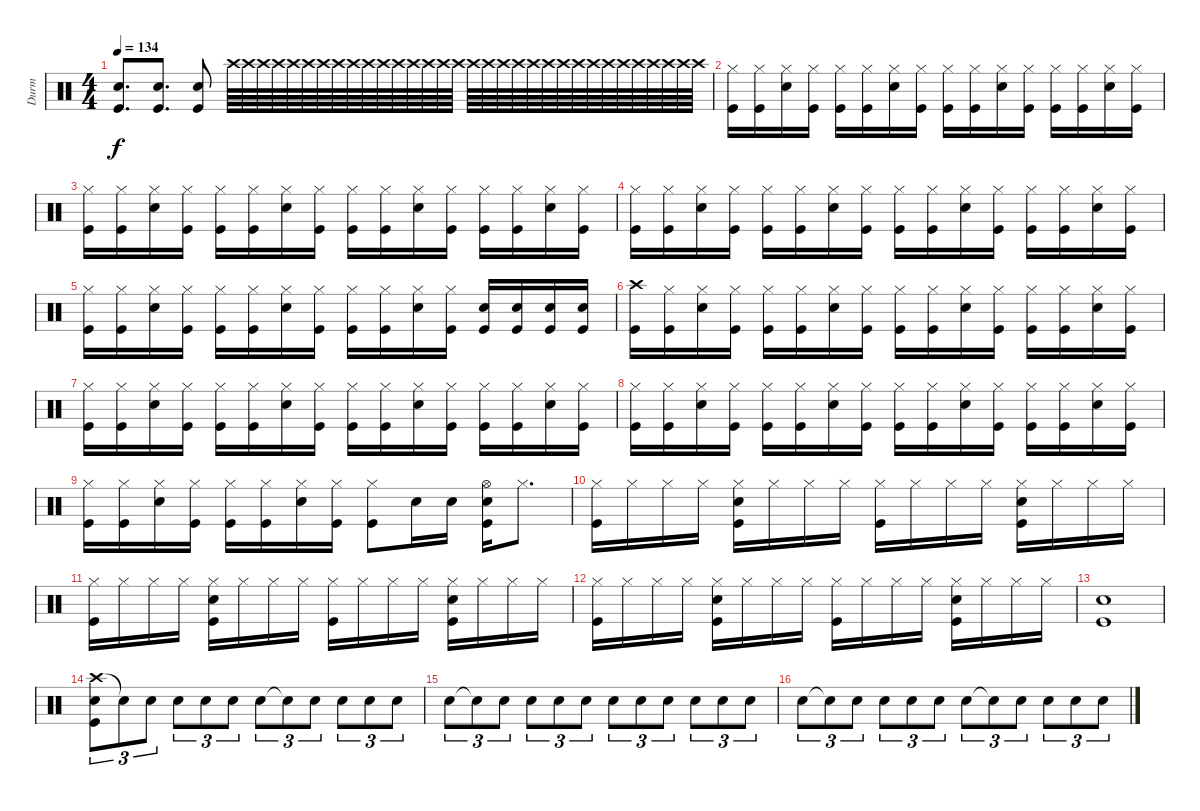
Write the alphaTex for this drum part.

\track ("Durm" "Durm") {instrument percussion}
\staff {score}
\articulation defaults
\ts (4 4)
\tempo 134
\clef neutral
\ks c
("Electric Snare (hit)" "Kick (hit)").8{d dy f} ("Electric Snare (hit)" "Kick (hit)").8{d} ("Electric Snare (hit)" "Kick (hit)").8 "Crash high (hit)".64{volume 0} "Crash high (hit)".64{volume 16} "Crash high (hit)".64 "Crash high (hit)".64 "Crash high (hit)".64 "Crash high (hit)".64 "Crash high (hit)".64 "Crash high (hit)".64 "Crash high (hit)".64 "Crash high (hit)".64 "Crash high (hit)".64 "Crash high (hit)".64 "Crash high (hit)".64 "Crash high (hit)".64 "Crash high (hit)".64 "Crash high (hit)".64 "Crash high (hit)".64 "Crash high (hit)".64 "Crash high (hit)".64 "Crash high (hit)".64 "Crash high (hit)".64 "Crash high (hit)".64 "Crash high (hit)".64 "Crash high (hit)".64 "Crash high (hit)".64 "Crash high (hit)".64 "Crash high (hit)".64 "Crash high (hit)".64 "Crash high (hit)".64 "Crash high (hit)".64 "Crash high (hit)".64 "Crash high (hit)".64{volume 16} |
("Hi-Hat (closed)" "Kick (hit)").16 ("Hi-Hat (closed)" "Kick (hit)").16 ("Hi-Hat (closed)" "Electric Snare (hit)").16 ("Hi-Hat (closed)" "Kick (hit)").16 ("Hi-Hat (closed)" "Kick (hit)").16 ("Hi-Hat (closed)" "Kick (hit)").16 ("Hi-Hat (closed)" "Electric Snare (hit)").16 ("Hi-Hat (closed)" "Kick (hit)").16 ("Hi-Hat (closed)" "Kick (hit)").16 ("Hi-Hat (closed)" "Kick (hit)").16 ("Hi-Hat (closed)" "Electric Snare (hit)").16 ("Hi-Hat (closed)" "Kick (hit)").16 ("Hi-Hat (closed)" "Kick (hit)").16 ("Hi-Hat (closed)" "Kick (hit)").16 ("Hi-Hat (closed)" "Electric Snare (hit)").16 ("Hi-Hat (closed)" "Kick (hit)").16 |
("Hi-Hat (closed)" "Kick (hit)").16 ("Hi-Hat (closed)" "Kick (hit)").16 ("Hi-Hat (closed)" "Electric Snare (hit)").16 ("Hi-Hat (closed)" "Kick (hit)").16 ("Hi-Hat (closed)" "Kick (hit)").16 ("Hi-Hat (closed)" "Kick (hit)").16 ("Hi-Hat (closed)" "Electric Snare (hit)").16 ("Hi-Hat (closed)" "Kick (hit)").16 ("Hi-Hat (closed)" "Kick (hit)").16 ("Hi-Hat (closed)" "Kick (hit)").16 ("Hi-Hat (closed)" "Electric Snare (hit)").16 ("Hi-Hat (closed)" "Kick (hit)").16 ("Hi-Hat (closed)" "Kick (hit)").16 ("Hi-Hat (closed)" "Kick (hit)").16 ("Hi-Hat (closed)" "Electric Snare (hit)").16 ("Hi-Hat (closed)" "Kick (hit)").16 |
("Hi-Hat (closed)" "Kick (hit)").16 ("Hi-Hat (closed)" "Kick (hit)").16 ("Hi-Hat (closed)" "Electric Snare (hit)").16 ("Hi-Hat (closed)" "Kick (hit)").16 ("Hi-Hat (closed)" "Kick (hit)").16 ("Hi-Hat (closed)" "Kick (hit)").16 ("Hi-Hat (closed)" "Electric Snare (hit)").16 ("Hi-Hat (closed)" "Kick (hit)").16 ("Hi-Hat (closed)" "Kick (hit)").16 ("Hi-Hat (closed)" "Kick (hit)").16 ("Hi-Hat (closed)" "Electric Snare (hit)").16 ("Hi-Hat (closed)" "Kick (hit)").16 ("Hi-Hat (closed)" "Kick (hit)").16 ("Hi-Hat (closed)" "Kick (hit)").16 ("Hi-Hat (closed)" "Electric Snare (hit)").16 ("Hi-Hat (closed)" "Kick (hit)").16 |
("Hi-Hat (closed)" "Kick (hit)").16 ("Hi-Hat (closed)" "Kick (hit)").16 ("Hi-Hat (closed)" "Electric Snare (hit)").16 ("Hi-Hat (closed)" "Kick (hit)").16 ("Hi-Hat (closed)" "Kick (hit)").16 ("Hi-Hat (closed)" "Kick (hit)").16 ("Hi-Hat (closed)" "Electric Snare (hit)").16 ("Hi-Hat (closed)" "Kick (hit)").16 ("Hi-Hat (closed)" "Kick (hit)").16 ("Hi-Hat (closed)" "Kick (hit)").16 ("Hi-Hat (closed)" "Electric Snare (hit)").16 ("Hi-Hat (closed)" "Kick (hit)").16 ("Electric Snare (hit)" "Kick (hit)").16 ("Electric Snare (hit)" "Kick (hit)").16 ("Electric Snare (hit)" "Kick (hit)").16 ("Electric Snare (hit)" "Kick (hit)").16 |
("Crash high (hit)" "Kick (hit)").16 ("Hi-Hat (closed)" "Kick (hit)").16 ("Hi-Hat (closed)" "Electric Snare (hit)").16 ("Hi-Hat (closed)" "Kick (hit)").16 ("Hi-Hat (closed)" "Kick (hit)").16 ("Hi-Hat (closed)" "Kick (hit)").16 ("Hi-Hat (closed)" "Electric Snare (hit)").16 ("Hi-Hat (closed)" "Kick (hit)").16 ("Hi-Hat (closed)" "Kick (hit)").16 ("Hi-Hat (closed)" "Kick (hit)").16 ("Hi-Hat (closed)" "Electric Snare (hit)").16 ("Hi-Hat (closed)" "Kick (hit)").16 ("Hi-Hat (closed)" "Kick (hit)").16 ("Hi-Hat (closed)" "Kick (hit)").16 ("Hi-Hat (closed)" "Electric Snare (hit)").16 ("Hi-Hat (closed)" "Kick (hit)").16 |
("Hi-Hat (closed)" "Kick (hit)").16 ("Hi-Hat (closed)" "Kick (hit)").16 ("Hi-Hat (closed)" "Electric Snare (hit)").16 ("Hi-Hat (closed)" "Kick (hit)").16 ("Hi-Hat (closed)" "Kick (hit)").16 ("Hi-Hat (closed)" "Kick (hit)").16 ("Hi-Hat (closed)" "Electric Snare (hit)").16 ("Hi-Hat (closed)" "Kick (hit)").16 ("Hi-Hat (closed)" "Kick (hit)").16 ("Hi-Hat (closed)" "Kick (hit)").16 ("Hi-Hat (closed)" "Electric Snare (hit)").16 ("Hi-Hat (closed)" "Kick (hit)").16 ("Hi-Hat (closed)" "Kick (hit)").16 ("Hi-Hat (closed)" "Kick (hit)").16 ("Hi-Hat (closed)" "Electric Snare (hit)").16 ("Hi-Hat (closed)" "Kick (hit)").16 |
("Hi-Hat (closed)" "Kick (hit)").16 ("Hi-Hat (closed)" "Kick (hit)").16 ("Hi-Hat (closed)" "Electric Snare (hit)").16 ("Hi-Hat (closed)" "Kick (hit)").16 ("Hi-Hat (closed)" "Kick (hit)").16 ("Hi-Hat (closed)" "Kick (hit)").16 ("Hi-Hat (closed)" "Electric Snare (hit)").16 ("Hi-Hat (closed)" "Kick (hit)").16 ("Hi-Hat (closed)" "Kick (hit)").16 ("Hi-Hat (closed)" "Kick (hit)").16 ("Hi-Hat (closed)" "Electric Snare (hit)").16 ("Hi-Hat (closed)" "Kick (hit)").16 ("Hi-Hat (closed)" "Kick (hit)").16 ("Hi-Hat (closed)" "Kick (hit)").16 ("Hi-Hat (closed)" "Electric Snare (hit)").16 ("Hi-Hat (closed)" "Kick (hit)").16 |
("Hi-Hat (closed)" "Kick (hit)").16 ("Hi-Hat (closed)" "Kick (hit)").16 ("Hi-Hat (closed)" "Electric Snare (hit)").16 ("Hi-Hat (closed)" "Kick (hit)").16 ("Hi-Hat (closed)" "Kick (hit)").16 ("Hi-Hat (closed)" "Kick (hit)").16 ("Hi-Hat (closed)" "Electric Snare (hit)").16 ("Hi-Hat (closed)" "Kick (hit)").16 ("Hi-Hat (closed)" "Kick (hit)").8 "Electric Snare (hit)".16 "Electric Snare (hit)".16 ("Hi-Hat (open)" "Electric Snare (hit)" "Kick (hit)").16 "Hi-Hat (closed)".8{d volume 0} |
("Hi-Hat (closed)" "Kick (hit)").16{volume 16} "Hi-Hat (closed)".16 "Hi-Hat (closed)".16 "Hi-Hat (closed)".16 ("Hi-Hat (closed)" "Electric Snare (hit)" "Kick (hit)").16 "Hi-Hat (closed)".16 "Hi-Hat (closed)".16 "Hi-Hat (closed)".16 ("Hi-Hat (closed)" "Kick (hit)").16 "Hi-Hat (closed)".16 "Hi-Hat (closed)".16 "Hi-Hat (closed)".16 ("Hi-Hat (closed)" "Electric Snare (hit)" "Kick (hit)").16 "Hi-Hat (closed)".16 "Hi-Hat (closed)".16 "Hi-Hat (closed)".16 |
("Hi-Hat (closed)" "Kick (hit)").16 "Hi-Hat (closed)".16 "Hi-Hat (closed)".16 "Hi-Hat (closed)".16 ("Hi-Hat (closed)" "Electric Snare (hit)" "Kick (hit)").16 "Hi-Hat (closed)".16 "Hi-Hat (closed)".16 "Hi-Hat (closed)".16 ("Hi-Hat (closed)" "Kick (hit)").16 "Hi-Hat (closed)".16 "Hi-Hat (closed)".16 "Hi-Hat (closed)".16 ("Hi-Hat (closed)" "Electric Snare (hit)" "Kick (hit)").16 "Hi-Hat (closed)".16 "Hi-Hat (closed)".16 "Hi-Hat (closed)".16 |
("Hi-Hat (closed)" "Kick (hit)").16 "Hi-Hat (closed)".16 "Hi-Hat (closed)".16 "Hi-Hat (closed)".16 ("Hi-Hat (closed)" "Electric Snare (hit)" "Kick (hit)").16 "Hi-Hat (closed)".16 "Hi-Hat (closed)".16 "Hi-Hat (closed)".16 ("Hi-Hat (closed)" "Kick (hit)").16 "Hi-Hat (closed)".16 "Hi-Hat (closed)".16 "Hi-Hat (closed)".16 ("Hi-Hat (closed)" "Electric Snare (hit)" "Kick (hit)").16 "Hi-Hat (closed)".16 "Hi-Hat (closed)".16 "Hi-Hat (closed)".16 |
("Kick (hit)" "Electric Snare (hit)").1 |
("Crash high (hit)" "Electric Snare (hit)" "Kick (hit)").8{tu (3 2)} "Electric Snare (hit)"{t}.8{tu (3 2)} "Electric Snare (hit)".8{tu (3 2)} "Electric Snare (hit)".8{tu (3 2)} "Electric Snare (hit)".8{tu (3 2)} "Electric Snare (hit)".8{tu (3 2)} "Electric Snare (hit)".8{tu (3 2)} "Electric Snare (hit)"{t}.8{tu (3 2)} "Electric Snare (hit)".8{tu (3 2)} "Electric Snare (hit)".8{tu (3 2)} "Electric Snare (hit)".8{tu (3 2)} "Electric Snare (hit)".8{tu (3 2)} |
"Electric Snare (hit)".8{tu (3 2)} "Electric Snare (hit)"{t}.8{tu (3 2)} "Electric Snare (hit)".8{tu (3 2)} "Electric Snare (hit)".8{tu (3 2)} "Electric Snare (hit)".8{tu (3 2)} "Electric Snare (hit)".8{tu (3 2)} "Electric Snare (hit)".8{tu (3 2)} "Electric Snare (hit)".8{tu (3 2)} "Electric Snare (hit)".8{tu (3 2)} "Electric Snare (hit)".8{tu (3 2)} "Electric Snare (hit)".8{tu (3 2)} "Electric Snare (hit)".8{tu (3 2)} |
"Electric Snare (hit)".8{tu (3 2)} "Electric Snare (hit)"{t}.8{tu (3 2)} "Electric Snare (hit)".8{tu (3 2)} "Electric Snare (hit)".8{tu (3 2)} "Electric Snare (hit)".8{tu (3 2)} "Electric Snare (hit)".8{tu (3 2)} "Electric Snare (hit)".8{tu (3 2)} "Electric Snare (hit)"{t}.8{tu (3 2)} "Electric Snare (hit)".8{tu (3 2)} "Electric Snare (hit)".8{tu (3 2)} "Electric Snare (hit)".8{tu (3 2)} "Electric Snare (hit)".8{tu (3 2)}
